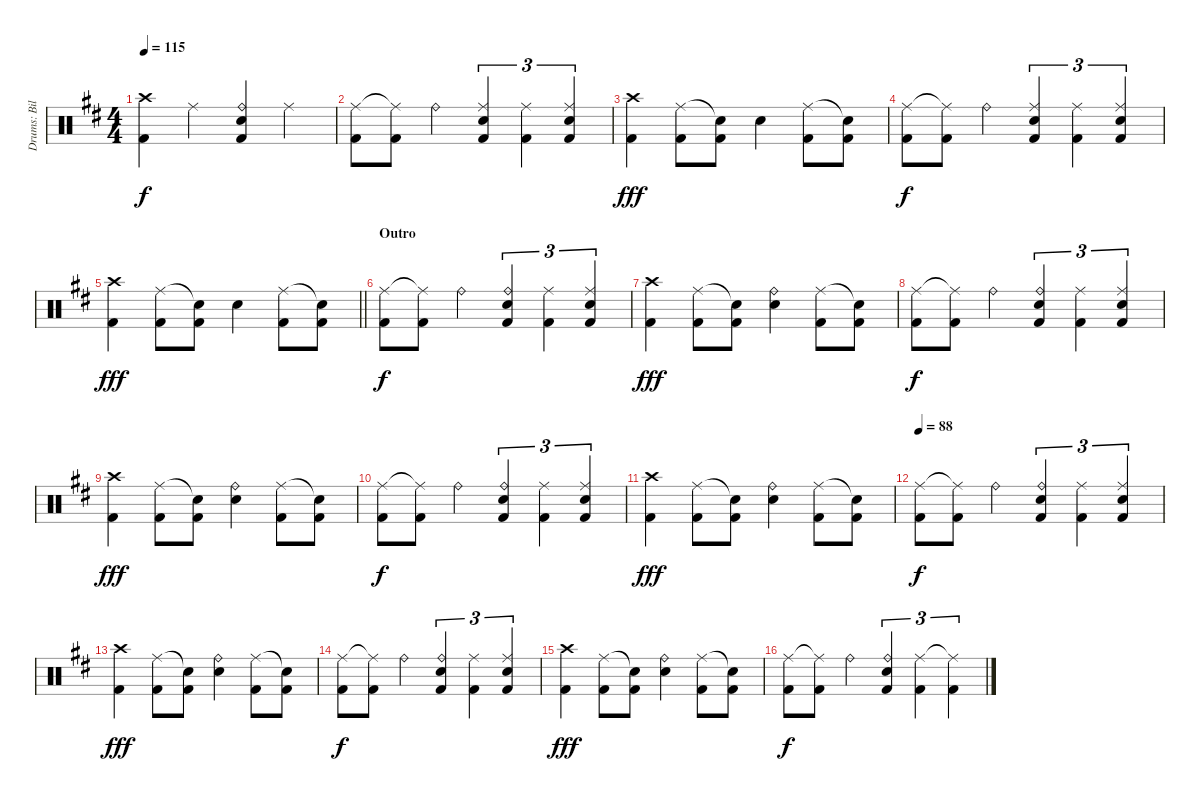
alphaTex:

\track ("Drums: Bill" "Drums: Bil") {instrument percussion}
\staff {score}
\articulation defaults
\ts (4 4)
\tempo 115
\clef neutral
\ks d
("Crash high (hit)" "Kick (hit) 2").4{dy f} "Ride (middle)".4 ("Ride (bell)" "Snare (hit) 2" "Kick (hit) 2").4 "Ride (middle)".4 |
("Ride (middle)" "Kick (hit) 2").8 ("Ride (middle)"{t} "Kick (hit) 2").8 "Ride (bell)".4 ("Ride (middle)" "Snare (hit) 2" "Kick (hit) 2").4{tu (3 2)} ("Ride (middle)" "Kick (hit) 2").4{tu (3 2)} ("Ride (middle)" "Snare (hit) 2" "Kick (hit) 2").4{tu (3 2)} |
("Crash high (hit)" "Kick (hit) 2").4{dy fff} ("Ride (middle)" "Kick (hit) 2").8 ("Snare (hit)"{t} "Kick (hit) 2").8 "Snare (hit) 2".4 ("Ride (middle)" "Kick (hit) 2").8 ("Snare (hit)"{t} "Kick (hit) 2").8 |
("Ride (middle)" "Kick (hit) 2").8{dy f} ("Ride (middle)"{t} "Kick (hit) 2").8 "Ride (bell)".4 ("Ride (middle)" "Snare (hit) 2" "Kick (hit) 2").4{tu (3 2)} ("Ride (middle)" "Kick (hit) 2").4{tu (3 2)} ("Ride (middle)" "Snare (hit) 2" "Kick (hit) 2").4{tu (3 2)} |
\barLineRight lightlight
("Crash high (hit)" "Kick (hit) 2").4{dy fff} ("Ride (middle)" "Kick (hit) 2").8 ("Snare (hit)"{t} "Kick (hit) 2").8 "Snare (hit) 2".4 ("Ride (middle)" "Kick (hit) 2").8 ("Snare (hit)"{t} "Kick (hit) 2").8 |
\section ("" "Outro")
("Ride (middle)" "Kick (hit) 2").8{dy f} ("Ride (middle)"{t} "Kick (hit) 2").8 "Ride (bell)".4 ("Ride (bell)" "Snare (hit) 2" "Kick (hit) 2").4{tu (3 2)} ("Ride (middle)" "Kick (hit) 2").4{tu (3 2)} ("Ride (middle)" "Snare (hit) 2" "Kick (hit) 2").4{tu (3 2)} |
("Crash high (hit)" "Kick (hit) 2").4{dy fff} ("Ride (middle)" "Kick (hit) 2").8 ("Snare (hit)"{t} "Kick (hit) 2").8 ("Ride (bell)" "Snare (hit) 2").4 ("Ride (middle)" "Kick (hit) 2").8 ("Snare (hit)"{t} "Kick (hit) 2").8 |
("Ride (middle)" "Kick (hit) 2").8{dy f} ("Ride (middle)"{t} "Kick (hit) 2").8 "Ride (bell)".4 ("Ride (bell)" "Snare (hit) 2" "Kick (hit) 2").4{tu (3 2)} ("Ride (middle)" "Kick (hit) 2").4{tu (3 2)} ("Ride (middle)" "Snare (hit) 2" "Kick (hit) 2").4{tu (3 2)} |
("Crash high (hit)" "Kick (hit) 2").4{dy fff} ("Ride (middle)" "Kick (hit) 2").8 ("Snare (hit)"{t} "Kick (hit) 2").8 ("Ride (bell)" "Snare (hit) 2").4 ("Ride (middle)" "Kick (hit) 2").8 ("Snare (hit)"{t} "Kick (hit) 2").8 |
("Ride (middle)" "Kick (hit) 2").8{dy f} ("Ride (middle)"{t} "Kick (hit) 2").8 "Ride (bell)".4 ("Ride (bell)" "Snare (hit) 2" "Kick (hit) 2").4{tu (3 2)} ("Ride (middle)" "Kick (hit) 2").4{tu (3 2)} ("Ride (middle)" "Snare (hit) 2" "Kick (hit) 2").4{tu (3 2)} |
("Crash high (hit)" "Kick (hit) 2").4{dy fff} ("Ride (middle)" "Kick (hit) 2").8 ("Snare (hit)"{t} "Kick (hit) 2").8 ("Ride (bell)" "Snare (hit) 2").4 ("Ride (middle)" "Kick (hit) 2").8 ("Snare (hit)"{t} "Kick (hit) 2").8 |
\tempo 88
("Ride (middle)" "Kick (hit) 2").8{dy f} ("Ride (middle)"{t} "Kick (hit) 2").8 "Ride (bell)".4 ("Ride (bell)" "Snare (hit) 2" "Kick (hit) 2").4{tu (3 2)} ("Ride (middle)" "Kick (hit) 2").4{tu (3 2)} ("Ride (middle)" "Snare (hit) 2" "Kick (hit) 2").4{tu (3 2)} |
("Crash high (hit)" "Kick (hit) 2").4{dy fff} ("Ride (middle)" "Kick (hit) 2").8 ("Snare (hit)"{t} "Kick (hit) 2").8 ("Ride (bell)" "Snare (hit) 2").4 ("Ride (middle)" "Kick (hit) 2").8 ("Snare (hit)"{t} "Kick (hit) 2").8 |
("Ride (middle)" "Kick (hit) 2").8{dy f} ("Ride (middle)"{t} "Kick (hit) 2").8 "Ride (bell)".4 ("Ride (bell)" "Snare (hit) 2" "Kick (hit) 2").4{tu (3 2)} ("Ride (middle)" "Kick (hit) 2").4{tu (3 2)} ("Ride (middle)" "Snare (hit) 2" "Kick (hit) 2").4{tu (3 2)} |
("Crash high (hit)" "Kick (hit) 2").4{dy fff} ("Ride (middle)" "Kick (hit) 2").8 ("Snare (hit)"{t} "Kick (hit) 2").8 ("Ride (bell)" "Snare (hit) 2").4 ("Ride (middle)" "Kick (hit) 2").8 ("Snare (hit)"{t} "Kick (hit) 2").8 |
("Ride (middle)" "Kick (hit) 2").8{dy f} ("Ride (middle)"{t} "Kick (hit) 2").8 "Ride (bell)".4 ("Ride (bell)" "Snare (hit) 2" "Kick (hit) 2").4{tu (3 2)} ("Ride (middle)" "Kick (hit) 2").4{tu (3 2)} ("Ride (middle)"{t} "Kick (hit) 2").4{tu (3 2)}
